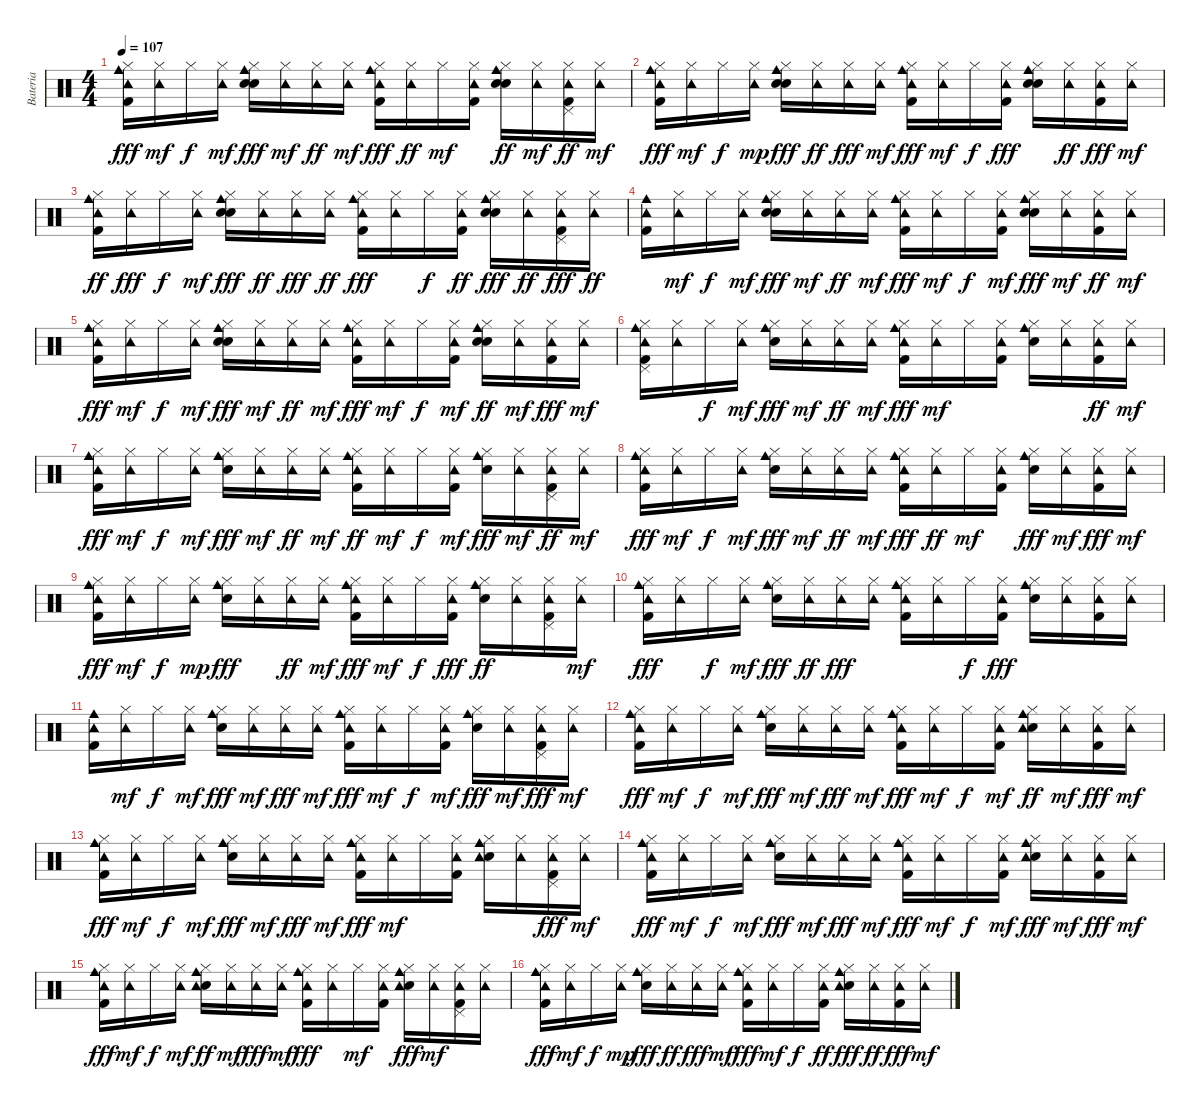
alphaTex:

\track ("Bateria" "Bateria") {instrument percussion}
\staff {score}
\articulation defaults
\ts (4 4)
\tempo 107
\clef neutral
\ks c
("Cowbell medium (hit)" "Kick (hit) 2" "Tambourine (hit)" "Hi-Hat (closed)").16{dy fff} ("Tambourine (hit)" "Hi-Hat (closed)").16{dy mf} "Hi-Hat (closed)".16{dy f} ("Tambourine (hit)" "Hi-Hat (closed)").16{dy mf} ("Hand Clap (hit)" "Cowbell medium (hit)" "Snare (hit) 2" "Hi-Hat (closed)").16{dy fff} ("Tambourine (hit)" "Hi-Hat (closed)").16{dy mf} ("Tambourine (hit)" "Hi-Hat (closed)").16{dy ff} ("Tambourine (hit)" "Hi-Hat (closed)").16{dy mf} ("Cowbell medium (hit)" "Kick (hit) 2" "Tambourine (hit)" "Hi-Hat (closed)").16{dy fff} ("Tambourine (hit)" "Hi-Hat (closed)").16{dy ff} "Hi-Hat (closed)".16{dy mf} ("Kick (hit) 2" "Tambourine (hit)" "Hi-Hat (closed)").16 ("Hand Clap (hit)" "Cowbell medium (hit)" "Snare (hit) 2" "Hi-Hat (closed)").16{dy ff} ("Tambourine (hit)" "Hi-Hat (closed)").16{dy mf} ("Kick (hit) 2" "Tambourine (hit)" "Pedal Hi-Hat (hit)" "Hi-Hat (closed)").16{dy ff} ("Tambourine (hit)" "Hi-Hat (closed)").16{dy mf} |
("Cowbell medium (hit)" "Kick (hit) 2" "Tambourine (hit)" "Hi-Hat (closed)").16{dy fff} ("Tambourine (hit)" "Hi-Hat (closed)").16{dy mf} "Hi-Hat (closed)".16{dy f} ("Tambourine (hit)" "Hi-Hat (closed)").16{dy mp} ("Hand Clap (hit)" "Cowbell medium (hit)" "Snare (hit) 2" "Hi-Hat (closed)").16{dy fff} ("Tambourine (hit)" "Hi-Hat (closed)").16{dy ff} ("Tambourine (hit)" "Hi-Hat (closed)").16{dy fff} ("Tambourine (hit)" "Hi-Hat (closed)").16{dy mf} ("Cowbell medium (hit)" "Kick (hit) 2" "Tambourine (hit)" "Hi-Hat (closed)").16{dy fff} ("Tambourine (hit)" "Hi-Hat (closed)").16{dy mf} "Hi-Hat (closed)".16{dy f} ("Kick (hit) 2" "Tambourine (hit)" "Hi-Hat (closed)").16{dy fff} ("Hand Clap (hit)" "Cowbell medium (hit)" "Snare (hit) 2" "Hi-Hat (closed)").16 ("Tambourine (hit)" "Hi-Hat (closed)").16{dy ff} ("Kick (hit) 2" "Tambourine (hit)" "Hi-Hat (closed)").16{dy fff} ("Tambourine (hit)" "Hi-Hat (closed)").16{dy mf} |
("Cowbell medium (hit)" "Kick (hit) 2" "Tambourine (hit)" "Hi-Hat (closed)").16{dy ff} ("Tambourine (hit)" "Hi-Hat (closed)").16{dy fff} "Hi-Hat (closed)".16{dy f} ("Tambourine (hit)" "Hi-Hat (closed)").16{dy mf} ("Hand Clap (hit)" "Cowbell medium (hit)" "Snare (hit) 2" "Hi-Hat (closed)").16{dy fff} ("Tambourine (hit)" "Hi-Hat (closed)").16{dy ff} ("Tambourine (hit)" "Hi-Hat (closed)").16{dy fff} ("Tambourine (hit)" "Hi-Hat (closed)").16{dy ff} ("Cowbell medium (hit)" "Kick (hit) 2" "Tambourine (hit)" "Hi-Hat (closed)").16{dy fff} ("Tambourine (hit)" "Hi-Hat (closed)").16 "Hi-Hat (closed)".16{dy f} ("Kick (hit) 2" "Tambourine (hit)" "Hi-Hat (closed)").16{dy ff} ("Hand Clap (hit)" "Cowbell medium (hit)" "Snare (hit) 2" "Hi-Hat (closed)").16{dy fff} ("Tambourine (hit)" "Hi-Hat (closed)").16{dy ff} ("Kick (hit) 2" "Tambourine (hit)" "Pedal Hi-Hat (hit)" "Hi-Hat (closed)").16{dy fff} ("Tambourine (hit)" "Hi-Hat (closed)").16{dy ff} |
("Cowbell medium (hit)" "Kick (hit) 2" "Tambourine (hit)").16 ("Tambourine (hit)" "Hi-Hat (closed)").16{dy mf} "Hi-Hat (closed)".16{dy f} ("Tambourine (hit)" "Hi-Hat (closed)").16{dy mf} ("Hand Clap (hit)" "Cowbell medium (hit)" "Snare (hit) 2" "Hi-Hat (closed)").16{dy fff} ("Tambourine (hit)" "Hi-Hat (closed)").16{dy mf} ("Tambourine (hit)" "Hi-Hat (closed)").16{dy ff} ("Tambourine (hit)" "Hi-Hat (closed)").16{dy mf} ("Cowbell medium (hit)" "Kick (hit) 2" "Tambourine (hit)" "Hi-Hat (closed)").16{dy fff} ("Tambourine (hit)" "Hi-Hat (closed)").16{dy mf} "Hi-Hat (closed)".16{dy f} ("Kick (hit) 2" "Tambourine (hit)" "Hi-Hat (closed)").16{dy mf} ("Hand Clap (hit)" "Cowbell medium (hit)" "Snare (hit) 2" "Hi-Hat (closed)").16{dy fff} ("Tambourine (hit)" "Hi-Hat (closed)").16{dy mf} ("Kick (hit) 2" "Tambourine (hit)" "Hi-Hat (closed)").16{dy ff} ("Tambourine (hit)" "Hi-Hat (closed)").16{dy mf} |
("Cowbell medium (hit)" "Kick (hit) 2" "Tambourine (hit)" "Hi-Hat (closed)").16{dy fff} ("Tambourine (hit)" "Hi-Hat (closed)").16{dy mf} "Hi-Hat (closed)".16{dy f} ("Tambourine (hit)" "Hi-Hat (closed)").16{dy mf} ("Hand Clap (hit)" "Cowbell medium (hit)" "Snare (hit) 2" "Hi-Hat (closed)").16{dy fff} ("Tambourine (hit)" "Hi-Hat (closed)").16{dy mf} ("Tambourine (hit)" "Hi-Hat (closed)").16{dy ff} ("Tambourine (hit)" "Hi-Hat (closed)").16{dy mf} ("Cowbell medium (hit)" "Kick (hit) 2" "Tambourine (hit)" "Hi-Hat (closed)").16{dy fff} ("Tambourine (hit)" "Hi-Hat (closed)").16{dy mf} "Hi-Hat (closed)".16{dy f} ("Kick (hit) 2" "Tambourine (hit)" "Hi-Hat (closed)").16{dy mf} ("Hand Clap (hit)" "Cowbell medium (hit)" "Snare (hit) 2" "Hi-Hat (closed)").16{dy ff} ("Tambourine (hit)" "Hi-Hat (closed)").16{dy mf} ("Kick (hit) 2" "Tambourine (hit)" "Hi-Hat (closed)").16{dy fff} ("Tambourine (hit)" "Hi-Hat (closed)").16{dy mf} |
("Cowbell medium (hit)" "Kick (hit) 2" "Tambourine (hit)" "Pedal Hi-Hat (hit)" "Hi-Hat (closed)").16 ("Tambourine (hit)" "Hi-Hat (closed)").16 "Hi-Hat (closed)".16{dy f} ("Tambourine (hit)" "Hi-Hat (closed)").16{dy mf} ("Cowbell medium (hit)" "Snare (hit) 2" "Hi-Hat (closed)").16{dy fff} ("Tambourine (hit)" "Hi-Hat (closed)").16{dy mf} ("Tambourine (hit)" "Hi-Hat (closed)").16{dy ff} ("Tambourine (hit)" "Hi-Hat (closed)").16{dy mf} ("Cowbell medium (hit)" "Kick (hit) 2" "Tambourine (hit)" "Hi-Hat (closed)").16{dy fff} ("Tambourine (hit)" "Hi-Hat (closed)").16{dy mf} "Hi-Hat (closed)".16 ("Kick (hit) 2" "Tambourine (hit)" "Hi-Hat (closed)").16 ("Cowbell medium (hit)" "Snare (hit) 2" "Hi-Hat (closed)").16 ("Tambourine (hit)" "Hi-Hat (closed)").16 ("Kick (hit) 2" "Tambourine (hit)" "Hi-Hat (closed)").16{dy ff} ("Tambourine (hit)" "Hi-Hat (closed)").16{dy mf} |
("Cowbell medium (hit)" "Kick (hit) 2" "Tambourine (hit)" "Hi-Hat (closed)").16{dy fff} ("Tambourine (hit)" "Hi-Hat (closed)").16{dy mf} "Hi-Hat (closed)".16{dy f} ("Tambourine (hit)" "Hi-Hat (closed)").16{dy mf} ("Cowbell medium (hit)" "Snare (hit) 2" "Hi-Hat (closed)").16{dy fff} ("Tambourine (hit)" "Hi-Hat (closed)").16{dy mf} ("Tambourine (hit)" "Hi-Hat (closed)").16{dy ff} ("Tambourine (hit)" "Hi-Hat (closed)").16{dy mf} ("Cowbell medium (hit)" "Kick (hit) 2" "Tambourine (hit)" "Hi-Hat (closed)").16{dy ff} ("Tambourine (hit)" "Hi-Hat (closed)").16{dy mf} "Hi-Hat (closed)".16{dy f} ("Kick (hit) 2" "Tambourine (hit)" "Hi-Hat (closed)").16{dy mf} ("Cowbell medium (hit)" "Snare (hit) 2" "Hi-Hat (closed)").16{dy fff} ("Tambourine (hit)" "Hi-Hat (closed)").16{dy mf} ("Kick (hit) 2" "Tambourine (hit)" "Pedal Hi-Hat (hit)" "Hi-Hat (closed)").16{dy ff} ("Tambourine (hit)" "Hi-Hat (closed)").16{dy mf} |
("Cowbell medium (hit)" "Kick (hit) 2" "Tambourine (hit)" "Hi-Hat (closed)").16{dy fff} ("Tambourine (hit)" "Hi-Hat (closed)").16{dy mf} "Hi-Hat (closed)".16{dy f} ("Tambourine (hit)" "Hi-Hat (closed)").16{dy mf} ("Cowbell medium (hit)" "Snare (hit) 2" "Hi-Hat (closed)").16{dy fff} ("Tambourine (hit)" "Hi-Hat (closed)").16{dy mf} ("Tambourine (hit)" "Hi-Hat (closed)").16{dy ff} ("Tambourine (hit)" "Hi-Hat (closed)").16{dy mf} ("Cowbell medium (hit)" "Kick (hit) 2" "Tambourine (hit)" "Hi-Hat (closed)").16{dy fff} ("Tambourine (hit)" "Hi-Hat (closed)").16{dy ff} "Hi-Hat (closed)".16{dy mf} ("Kick (hit) 2" "Tambourine (hit)" "Hi-Hat (closed)").16 ("Cowbell medium (hit)" "Snare (hit) 2" "Hi-Hat (closed)").16{dy fff} ("Tambourine (hit)" "Hi-Hat (closed)").16{dy mf} ("Kick (hit) 2" "Tambourine (hit)" "Hi-Hat (closed)").16{dy fff} ("Tambourine (hit)" "Hi-Hat (closed)").16{dy mf} |
("Cowbell medium (hit)" "Kick (hit) 2" "Tambourine (hit)" "Hi-Hat (closed)").16{dy fff} ("Tambourine (hit)" "Hi-Hat (closed)").16{dy mf} "Hi-Hat (closed)".16{dy f} ("Tambourine (hit)" "Hi-Hat (closed)").16{dy mp} ("Cowbell medium (hit)" "Snare (hit) 2" "Hi-Hat (closed)").16{dy fff} ("Tambourine (hit)" "Hi-Hat (closed)").16 ("Tambourine (hit)" "Hi-Hat (closed)").16{dy ff} ("Tambourine (hit)" "Hi-Hat (closed)").16{dy mf} ("Cowbell medium (hit)" "Kick (hit) 2" "Tambourine (hit)" "Hi-Hat (closed)").16{dy fff} ("Tambourine (hit)" "Hi-Hat (closed)").16{dy mf} "Hi-Hat (closed)".16{dy f} ("Kick (hit) 2" "Tambourine (hit)" "Hi-Hat (closed)").16{dy fff} ("Cowbell medium (hit)" "Snare (hit) 2" "Hi-Hat (closed)").16{dy ff} ("Tambourine (hit)" "Hi-Hat (closed)").16 ("Kick (hit) 2" "Tambourine (hit)" "Pedal Hi-Hat (hit)" "Hi-Hat (closed)").16 ("Tambourine (hit)" "Hi-Hat (closed)").16{dy mf} |
("Cowbell medium (hit)" "Kick (hit) 2" "Tambourine (hit)" "Hi-Hat (closed)").16{dy fff} ("Tambourine (hit)" "Hi-Hat (closed)").16 "Hi-Hat (closed)".16{dy f} ("Tambourine (hit)" "Hi-Hat (closed)").16{dy mf} ("Cowbell medium (hit)" "Snare (hit) 2" "Hi-Hat (closed)").16{dy fff} ("Tambourine (hit)" "Hi-Hat (closed)").16{dy ff} ("Tambourine (hit)" "Hi-Hat (closed)").16{dy fff} ("Tambourine (hit)" "Hi-Hat (closed)").16 ("Cowbell medium (hit)" "Kick (hit) 2" "Tambourine (hit)" "Hi-Hat (closed)").16 ("Tambourine (hit)" "Hi-Hat (closed)").16 "Hi-Hat (closed)".16{dy f} ("Kick (hit) 2" "Tambourine (hit)" "Hi-Hat (closed)").16{dy fff} ("Cowbell medium (hit)" "Snare (hit) 2" "Hi-Hat (closed)").16 ("Tambourine (hit)" "Hi-Hat (closed)").16 ("Kick (hit) 2" "Tambourine (hit)" "Hi-Hat (closed)").16 ("Tambourine (hit)" "Hi-Hat (closed)").16 |
("Cowbell medium (hit)" "Kick (hit) 2" "Tambourine (hit)").16 ("Tambourine (hit)" "Hi-Hat (closed)").16{dy mf} "Hi-Hat (closed)".16{dy f} ("Tambourine (hit)" "Hi-Hat (closed)").16{dy mf} ("Cowbell medium (hit)" "Snare (hit) 2" "Hi-Hat (closed)").16{dy fff} ("Tambourine (hit)" "Hi-Hat (closed)").16{dy mf} ("Tambourine (hit)" "Hi-Hat (closed)").16{dy fff} ("Tambourine (hit)" "Hi-Hat (closed)").16{dy mf} ("Cowbell medium (hit)" "Kick (hit) 2" "Tambourine (hit)" "Hi-Hat (closed)").16{dy fff} ("Tambourine (hit)" "Hi-Hat (closed)").16{dy mf} "Hi-Hat (closed)".16{dy f} ("Kick (hit) 2" "Tambourine (hit)" "Hi-Hat (closed)").16{dy mf} ("Cowbell medium (hit)" "Snare (hit) 2" "Hi-Hat (closed)").16{dy fff} ("Tambourine (hit)" "Hi-Hat (closed)").16{dy mf} ("Kick (hit) 2" "Tambourine (hit)" "Pedal Hi-Hat (hit)" "Hi-Hat (closed)").16{dy fff} ("Tambourine (hit)" "Hi-Hat (closed)").16{dy mf} |
("Cowbell medium (hit)" "Kick (hit) 2" "Tambourine (hit)" "Hi-Hat (closed)").16{dy fff} ("Tambourine (hit)" "Hi-Hat (closed)").16{dy mf} "Hi-Hat (closed)".16{dy f} ("Tambourine (hit)" "Hi-Hat (closed)").16{dy mf} ("Cowbell medium (hit)" "Snare (hit) 2" "Hi-Hat (closed)").16{dy fff} ("Tambourine (hit)" "Hi-Hat (closed)").16{dy mf} ("Tambourine (hit)" "Hi-Hat (closed)").16{dy fff} ("Tambourine (hit)" "Hi-Hat (closed)").16{dy mf} ("Cowbell medium (hit)" "Kick (hit) 2" "Tambourine (hit)" "Hi-Hat (closed)").16{dy fff} ("Tambourine (hit)" "Hi-Hat (closed)").16{dy mf} "Hi-Hat (closed)".16{dy f} ("Kick (hit) 2" "Tambourine (hit)" "Hi-Hat (closed)").16{dy mf} ("Cowbell medium (hit)" "Snare (hit) 2" "Tambourine (hit)" "Hi-Hat (closed)").16{dy ff} ("Tambourine (hit)" "Hi-Hat (closed)").16{dy mf} ("Kick (hit) 2" "Tambourine (hit)" "Hi-Hat (closed)").16{dy fff} ("Tambourine (hit)" "Hi-Hat (closed)").16{dy mf} |
("Cowbell medium (hit)" "Kick (hit) 2" "Tambourine (hit)" "Hi-Hat (closed)").16{dy fff} ("Tambourine (hit)" "Hi-Hat (closed)").16{dy mf} "Hi-Hat (closed)".16{dy f} ("Tambourine (hit)" "Hi-Hat (closed)").16{dy mf} ("Cowbell medium (hit)" "Snare (hit) 2" "Hi-Hat (closed)").16{dy fff} ("Tambourine (hit)" "Hi-Hat (closed)").16{dy mf} ("Tambourine (hit)" "Hi-Hat (closed)").16{dy fff} ("Tambourine (hit)" "Hi-Hat (closed)").16{dy mf} ("Cowbell medium (hit)" "Kick (hit) 2" "Tambourine (hit)" "Hi-Hat (closed)").16{dy fff} ("Tambourine (hit)" "Hi-Hat (closed)").16{dy mf} "Hi-Hat (closed)".16 ("Kick (hit) 2" "Tambourine (hit)" "Hi-Hat (closed)").16 ("Cowbell medium (hit)" "Snare (hit) 2" "Tambourine (hit)" "Hi-Hat (closed)").16 ("Tambourine (hit)" "Hi-Hat (closed)").16 ("Kick (hit) 2" "Tambourine (hit)" "Pedal Hi-Hat (hit)" "Hi-Hat (closed)").16{dy fff} ("Tambourine (hit)" "Hi-Hat (closed)").16{dy mf} |
("Cowbell medium (hit)" "Kick (hit) 2" "Tambourine (hit)" "Hi-Hat (closed)").16{dy fff} ("Tambourine (hit)" "Hi-Hat (closed)").16{dy mf} "Hi-Hat (closed)".16{dy f} ("Tambourine (hit)" "Hi-Hat (closed)").16{dy mf} ("Cowbell medium (hit)" "Snare (hit) 2" "Hi-Hat (closed)").16{dy fff} ("Tambourine (hit)" "Hi-Hat (closed)").16{dy mf} ("Tambourine (hit)" "Hi-Hat (closed)").16{dy fff} ("Tambourine (hit)" "Hi-Hat (closed)").16{dy mf} ("Cowbell medium (hit)" "Kick (hit) 2" "Tambourine (hit)" "Hi-Hat (closed)").16{dy fff} ("Tambourine (hit)" "Hi-Hat (closed)").16{dy mf} "Hi-Hat (closed)".16{dy f} ("Kick (hit) 2" "Tambourine (hit)" "Hi-Hat (closed)").16{dy mf} ("Cowbell medium (hit)" "Snare (hit) 2" "Tambourine (hit)" "Hi-Hat (closed)").16{dy fff} ("Tambourine (hit)" "Hi-Hat (closed)").16{dy mf} ("Kick (hit) 2" "Tambourine (hit)" "Hi-Hat (closed)").16{dy fff} ("Tambourine (hit)" "Hi-Hat (closed)").16{dy mf} |
("Cowbell medium (hit)" "Kick (hit) 2" "Tambourine (hit)" "Hi-Hat (closed)").16{dy fff} ("Tambourine (hit)" "Hi-Hat (closed)").16{dy mf} "Hi-Hat (closed)".16{dy f} ("Tambourine (hit)" "Hi-Hat (closed)").16{dy mf} ("Cowbell medium (hit)" "Snare (hit) 2" "Tambourine (hit)" "Hi-Hat (closed)").16{dy ff} ("Tambourine (hit)" "Hi-Hat (closed)").16{dy mf} ("Tambourine (hit)" "Hi-Hat (closed)").16{dy fff} ("Tambourine (hit)" "Hi-Hat (closed)").16{dy mf} ("Cowbell medium (hit)" "Kick (hit) 2" "Tambourine (hit)" "Hi-Hat (closed)").16{dy fff} ("Tambourine (hit)" "Hi-Hat (closed)").16 "Hi-Hat (closed)".16{dy mf} ("Kick (hit) 2" "Tambourine (hit)" "Hi-Hat (closed)").16 ("Cowbell medium (hit)" "Snare (hit) 2" "Tambourine (hit)" "Hi-Hat (closed)").16{dy fff} ("Tambourine (hit)" "Hi-Hat (closed)").16{dy mf} ("Kick (hit) 2" "Tambourine (hit)" "Pedal Hi-Hat (hit)" "Hi-Hat (closed)").16 ("Tambourine (hit)" "Hi-Hat (closed)").16 |
("Cowbell medium (hit)" "Kick (hit) 2" "Tambourine (hit)" "Hi-Hat (closed)").16{dy fff} ("Tambourine (hit)" "Hi-Hat (closed)").16{dy mf} "Hi-Hat (closed)".16{dy f} ("Tambourine (hit)" "Hi-Hat (closed)").16{dy mp} ("Cowbell medium (hit)" "Snare (hit) 2" "Hi-Hat (closed)").16{dy fff} ("Tambourine (hit)" "Hi-Hat (closed)").16{dy ff} ("Tambourine (hit)" "Hi-Hat (closed)").16{dy fff} ("Tambourine (hit)" "Hi-Hat (closed)").16{dy mf} ("Cowbell medium (hit)" "Kick (hit) 2" "Tambourine (hit)" "Hi-Hat (closed)").16{dy fff} ("Tambourine (hit)" "Hi-Hat (closed)").16{dy mf} "Hi-Hat (closed)".16{dy f} ("Kick (hit) 2" "Tambourine (hit)" "Hi-Hat (closed)").16{dy ff} ("Cowbell medium (hit)" "Snare (hit) 2" "Tambourine (hit)" "Hi-Hat (closed)").16{dy fff} ("Tambourine (hit)" "Hi-Hat (closed)").16{dy ff} ("Kick (hit) 2" "Tambourine (hit)" "Hi-Hat (closed)").16{dy fff} ("Tambourine (hit)" "Hi-Hat (closed)").16{dy mf}
